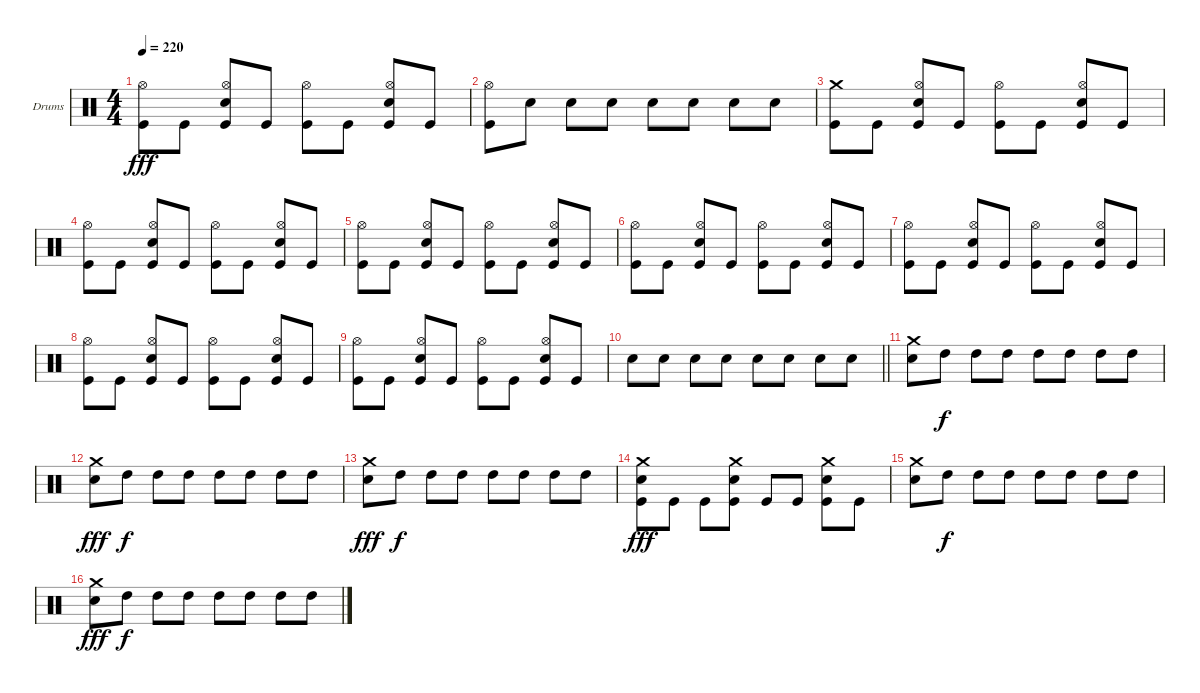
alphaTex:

\bracketExtendMode groupsimilarinstruments
\firstSystemTrackNameOrientation horizontal
\otherSystemsTrackNameOrientation horizontal
\track ("Stefan Schwarzmann" "Drums") {instrument percussion}
\staff {score}
\articulation defaults
\ts (4 4)
\tempo 220
\clef neutral
\ks c
("Kick (hit)" "Hi-Hat (open)").8{dy fff} "Kick (hit)".8 ("Kick (hit)" "Snare (hit) 2" "Hi-Hat (open)").8 "Kick (hit)".8 ("Kick (hit)" "Hi-Hat (open)").8 "Kick (hit)".8 ("Kick (hit)" "Snare (hit) 2" "Hi-Hat (open)").8 "Kick (hit)".8 |
("Kick (hit)" "Hi-Hat (open)").8 "Snare (hit) 2".8 "Snare (hit) 2".8 "Snare (hit) 2".8 "Snare (hit) 2".8 "Snare (hit) 2".8 "Snare (hit) 2".8 "Snare (hit) 2".8 |
("Kick (hit)" "Crash medium (hit)").8 "Kick (hit)".8 ("Kick (hit)" "Snare (hit) 2" "Hi-Hat (open)").8 "Kick (hit)".8 ("Kick (hit)" "Hi-Hat (open)").8 "Kick (hit)".8 ("Kick (hit)" "Snare (hit) 2" "Hi-Hat (open)").8 "Kick (hit)".8 |
("Kick (hit)" "Hi-Hat (open)").8 "Kick (hit)".8 ("Kick (hit)" "Snare (hit) 2" "Hi-Hat (open)").8 "Kick (hit)".8 ("Kick (hit)" "Hi-Hat (open)").8 "Kick (hit)".8 ("Kick (hit)" "Snare (hit) 2" "Hi-Hat (open)").8 "Kick (hit)".8 |
("Kick (hit)" "Hi-Hat (open)").8 "Kick (hit)".8 ("Kick (hit)" "Snare (hit) 2" "Hi-Hat (open)").8 "Kick (hit)".8 ("Kick (hit)" "Hi-Hat (open)").8 "Kick (hit)".8 ("Kick (hit)" "Snare (hit) 2" "Hi-Hat (open)").8 "Kick (hit)".8 |
("Kick (hit)" "Hi-Hat (open)").8 "Kick (hit)".8 ("Kick (hit)" "Snare (hit) 2" "Hi-Hat (open)").8 "Kick (hit)".8 ("Kick (hit)" "Hi-Hat (open)").8 "Kick (hit)".8 ("Kick (hit)" "Snare (hit) 2" "Hi-Hat (open)").8 "Kick (hit)".8 |
("Kick (hit)" "Hi-Hat (open)").8 "Kick (hit)".8 ("Kick (hit)" "Snare (hit) 2" "Hi-Hat (open)").8 "Kick (hit)".8 ("Kick (hit)" "Hi-Hat (open)").8 "Kick (hit)".8 ("Kick (hit)" "Snare (hit) 2" "Hi-Hat (open)").8 "Kick (hit)".8 |
("Kick (hit)" "Hi-Hat (open)").8 "Kick (hit)".8 ("Kick (hit)" "Snare (hit) 2" "Hi-Hat (open)").8 "Kick (hit)".8 ("Kick (hit)" "Hi-Hat (open)").8 "Kick (hit)".8 ("Kick (hit)" "Snare (hit) 2" "Hi-Hat (open)").8 "Kick (hit)".8 |
("Kick (hit)" "Hi-Hat (open)").8 "Kick (hit)".8 ("Kick (hit)" "Snare (hit) 2" "Hi-Hat (open)").8 "Kick (hit)".8 ("Kick (hit)" "Hi-Hat (open)").8 "Kick (hit)".8 ("Kick (hit)" "Snare (hit) 2" "Hi-Hat (open)").8 "Kick (hit)".8 |
\barLineRight lightlight "Snare (hit) 2".8 "Snare (hit) 2".8 "Snare (hit) 2".8 "Snare (hit) 2".8 "Snare (hit) 2".8 "Snare (hit) 2".8 "Snare (hit) 2".8 "Snare (hit) 2".8
|
("Snare (hit) 2" "Crash medium (hit)").8 "High Tom (hit)".8{dy f} "High Tom (hit)".8 "High Tom (hit)".8 "High Tom (hit)".8 "High Tom (hit)".8 "High Tom (hit)".8 "High Tom (hit)".8 |
("Snare (hit) 2" "Crash medium (hit)").8{dy fff} "High Tom (hit)".8{dy f} "High Tom (hit)".8 "High Tom (hit)".8 "High Tom (hit)".8 "High Tom (hit)".8 "High Tom (hit)".8 "High Tom (hit)".8 |
("Snare (hit) 2" "Crash medium (hit)").8{dy fff} "High Tom (hit)".8{dy f} "High Tom (hit)".8 "High Tom (hit)".8 "High Tom (hit)".8 "High Tom (hit)".8 "High Tom (hit)".8 "High Tom (hit)".8 |
("Kick (hit)" "Snare (hit) 2" "Crash medium (hit)").8{dy fff} "Kick (hit)".8 "Kick (hit)".8 ("Kick (hit)" "Snare (hit) 2" "Crash medium (hit)").8 "Kick (hit)".8 "Kick (hit)".8 ("Kick (hit)" "Snare (hit) 2" "Crash medium (hit)").8 "Kick (hit)".8 |
("Snare (hit) 2" "Crash medium (hit)").8 "High Tom (hit)".8{dy f} "High Tom (hit)".8 "High Tom (hit)".8 "High Tom (hit)".8 "High Tom (hit)".8 "High Tom (hit)".8 "High Tom (hit)".8 |
("Snare (hit) 2" "Crash medium (hit)").8{dy fff} "High Tom (hit)".8{dy f} "High Tom (hit)".8 "High Tom (hit)".8 "High Tom (hit)".8 "High Tom (hit)".8 "High Tom (hit)".8 "High Tom (hit)".8
